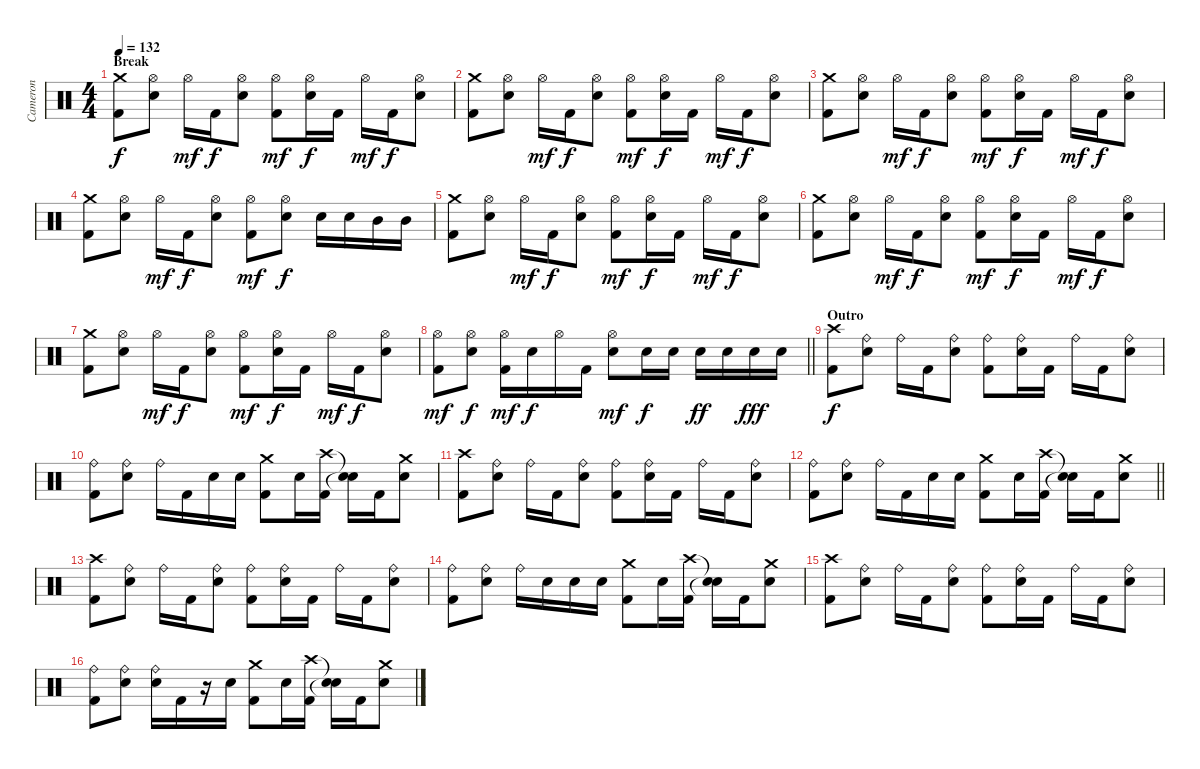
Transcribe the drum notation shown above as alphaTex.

\track ("Cameron" "Cameron") {instrument percussion}
\staff {score}
\articulation defaults
\ts (4 4)
\section ("" "Break")
\tempo 132
\clef neutral
\ks c
("Crash medium (hit)" "Kick (hit) 2").8{dy f} ("Hi-Hat (open)" "Snare (hit) 2").8 "Hi-Hat (open)".16{dy mf} "Kick (hit) 2".16{dy f} ("Hi-Hat (open)" "Snare (hit) 2").8 ("Hi-Hat (open)" "Kick (hit) 2").8{dy mf} ("Hi-Hat (open)" "Snare (hit) 2").16{dy f} "Kick (hit) 2".16 "Hi-Hat (open)".16{dy mf} "Kick (hit) 2".16{dy f} ("Hi-Hat (open)" "Snare (hit) 2").8 |
("Crash medium (hit)" "Kick (hit) 2").8 ("Hi-Hat (open)" "Snare (hit) 2").8 "Hi-Hat (open)".16{dy mf} "Kick (hit) 2".16{dy f} ("Hi-Hat (open)" "Snare (hit) 2").8 ("Hi-Hat (open)" "Kick (hit) 2").8{dy mf} ("Hi-Hat (open)" "Snare (hit) 2").16{dy f} "Kick (hit) 2".16 "Hi-Hat (open)".16{dy mf} "Kick (hit) 2".16{dy f} ("Hi-Hat (open)" "Snare (hit) 2").8 |
("Crash medium (hit)" "Kick (hit) 2").8 ("Hi-Hat (open)" "Snare (hit) 2").8 "Hi-Hat (open)".16{dy mf} "Kick (hit) 2".16{dy f} ("Hi-Hat (open)" "Snare (hit) 2").8 ("Hi-Hat (open)" "Kick (hit) 2").8{dy mf} ("Hi-Hat (open)" "Snare (hit) 2").16{dy f} "Kick (hit) 2".16 "Hi-Hat (open)".16{dy mf} "Kick (hit) 2".16{dy f} ("Hi-Hat (open)" "Snare (hit) 2").8 |
("Crash medium (hit)" "Kick (hit) 2").8 ("Hi-Hat (open)" "Snare (hit) 2").8 "Hi-Hat (open)".16{dy mf} "Kick (hit) 2".16{dy f} ("Hi-Hat (open)" "Snare (hit) 2").8 ("Hi-Hat (open)" "Kick (hit) 2").8{dy mf} ("Hi-Hat (open)" "Snare (hit) 2").8{dy f} "Snare (hit) 2".16 "Snare (hit) 2".16 "Mid Tom (hit)".16 "Mid Tom (hit)".16 |
("Crash medium (hit)" "Kick (hit) 2").8 ("Hi-Hat (open)" "Snare (hit) 2").8 "Hi-Hat (open)".16{dy mf} "Kick (hit) 2".16{dy f} ("Hi-Hat (open)" "Snare (hit) 2").8 ("Hi-Hat (open)" "Kick (hit) 2").8{dy mf} ("Hi-Hat (open)" "Snare (hit) 2").16{dy f} "Kick (hit) 2".16 "Hi-Hat (open)".16{dy mf} "Kick (hit) 2".16{dy f} ("Hi-Hat (open)" "Snare (hit) 2").8 |
("Crash medium (hit)" "Kick (hit) 2").8 ("Hi-Hat (open)" "Snare (hit) 2").8 "Hi-Hat (open)".16{dy mf} "Kick (hit) 2".16{dy f} ("Hi-Hat (open)" "Snare (hit) 2").8 ("Hi-Hat (open)" "Kick (hit) 2").8{dy mf} ("Hi-Hat (open)" "Snare (hit) 2").16{dy f} "Kick (hit) 2".16 "Hi-Hat (open)".16{dy mf} "Kick (hit) 2".16{dy f} ("Hi-Hat (open)" "Snare (hit) 2").8 |
("Crash medium (hit)" "Kick (hit) 2").8 ("Hi-Hat (open)" "Snare (hit) 2").8 "Hi-Hat (open)".16{dy mf} "Kick (hit) 2".16{dy f} ("Hi-Hat (open)" "Snare (hit) 2").8 ("Hi-Hat (open)" "Kick (hit) 2").8{dy mf} ("Hi-Hat (open)" "Snare (hit) 2").16{dy f} "Kick (hit) 2".16 "Hi-Hat (open)".16{dy mf} "Kick (hit) 2".16{dy f} ("Hi-Hat (open)" "Snare (hit) 2").8 |
\barLineRight lightlight
("Hi-Hat (open)" "Kick (hit) 2").8{dy mf} ("Hi-Hat (open)" "Snare (hit) 2").8{dy f} ("Hi-Hat (open)" "Kick (hit) 2").16{dy mf} "Snare (hit) 2".16{dy f} "Hi-Hat (open)".16 "Kick (hit) 2".16 ("Hi-Hat (open)" "Snare (hit) 2").8{dy mf} "Snare (hit) 2".16{dy f} "Snare (hit) 2".16 "Snare (hit) 2".16{dy ff} "Snare (hit) 2".16 "Snare (hit) 2".16{dy fff} "Snare (hit) 2".16 |
\section ("" "Outro")
("Crash high (hit)" "Kick (hit) 2").8{dy f} ("Ride (bell)" "Snare (hit) 2").8 "Ride (bell)".16 "Kick (hit) 2".16 ("Ride (bell)" "Snare (hit) 2").8 ("Ride (bell)" "Kick (hit) 2").8 ("Ride (bell)" "Snare (hit) 2").16 "Kick (hit) 2".16 "Ride (bell)".16 "Kick (hit) 2".16 ("Ride (bell)" "Snare (hit) 2").8 |
("Ride (bell)" "Kick (hit) 2").8 ("Ride (bell)" "Snare (hit) 2").8 "Ride (bell)".16 "Kick (hit) 2".16 "Snare (hit) 2".16 "Snare (hit) 2".16 ("Crash medium (hit)" "Kick (hit) 2").8 "Snare (hit) 2".16 ("Crash high (hit)" "Kick (hit) 2").16 ("Snare (hit)"{t} "Snare (hit)"{t}).16 "Kick (hit) 2".16 ("Crash medium (hit)" "Snare (hit) 2").8 |
("Crash high (hit)" "Kick (hit) 2").8 ("Ride (bell)" "Snare (hit) 2").8 "Ride (bell)".16 "Kick (hit) 2".16 ("Ride (bell)" "Snare (hit) 2").8 ("Ride (bell)" "Kick (hit) 2").8 ("Ride (bell)" "Snare (hit) 2").16 "Kick (hit) 2".16 "Ride (bell)".16 "Kick (hit) 2".16 ("Ride (bell)" "Snare (hit) 2").8 |
\barLineRight lightlight
("Ride (bell)" "Kick (hit) 2").8 ("Ride (bell)" "Snare (hit) 2").8 "Ride (bell)".16 "Kick (hit) 2".16 "Snare (hit) 2".16 "Snare (hit) 2".16 ("Crash medium (hit)" "Kick (hit) 2").8 "Snare (hit) 2".16 ("Crash high (hit)" "Kick (hit) 2").16 ("Snare (hit)"{t} "Snare (hit)"{t}).16 "Kick (hit) 2".16 ("Crash medium (hit)" "Snare (hit) 2").8 |
\section ("" "")
("Crash high (hit)" "Kick (hit) 2").8 ("Ride (bell)" "Snare (hit) 2").8 "Ride (bell)".16 "Kick (hit) 2".16 ("Ride (bell)" "Snare (hit) 2").8 ("Ride (bell)" "Kick (hit) 2").8 ("Ride (bell)" "Snare (hit) 2").16 "Kick (hit) 2".16 "Ride (bell)".16 "Kick (hit) 2".16 ("Ride (bell)" "Snare (hit) 2").8 |
("Ride (bell)" "Kick (hit) 2").8 ("Ride (bell)" "Snare (hit) 2").8 "Ride (bell)".16 "Snare (hit) 2".16 "Snare (hit) 2".16 "Snare (hit) 2".16 ("Crash medium (hit)" "Kick (hit) 2").8 "Snare (hit) 2".16 ("Crash high (hit)" "Kick (hit) 2").16 ("Snare (hit)"{t} "Snare (hit)"{t}).16 "Kick (hit) 2".16 ("Crash medium (hit)" "Snare (hit) 2").8 |
("Crash high (hit)" "Kick (hit) 2").8 ("Ride (bell)" "Snare (hit) 2").8 "Ride (bell)".16 "Kick (hit) 2".16 ("Ride (bell)" "Snare (hit) 2").8 ("Ride (bell)" "Kick (hit) 2").8 ("Ride (bell)" "Snare (hit) 2").16 "Kick (hit) 2".16 "Ride (bell)".16 "Kick (hit) 2".16 ("Ride (bell)" "Snare (hit) 2").8 |
("Ride (bell)" "Kick (hit) 2").8 ("Ride (bell)" "Snare (hit) 2").8 ("Ride (bell)" "Snare (hit) 2").16 "Kick (hit) 2".16 r.16 "Snare (hit) 2".16 ("Crash medium (hit)" "Kick (hit) 2").8 "Snare (hit) 2".16 ("Crash high (hit)" "Kick (hit) 2").16 ("Snare (hit)"{t} "Snare (hit)"{t}).16 "Kick (hit) 2".16 ("Crash medium (hit)" "Snare (hit) 2").8
